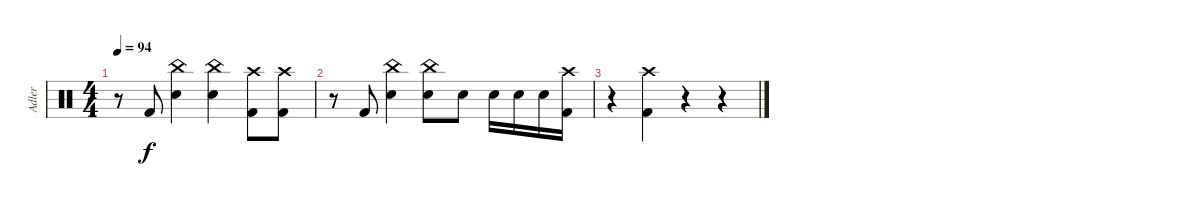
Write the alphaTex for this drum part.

\track ("Adler" "Adler") {instrument percussion}
\staff {score}
\articulation defaults
\ts (4 4)
\tempo 94
\clef neutral
\ks c
r.8{dy f} "Kick (hit) 2".8 ("China (hit)" "Snare (hit) 2").4 ("China (hit)" "Snare (hit) 2").4 ("Kick (hit) 2" "Crash high (hit)").8 ("Kick (hit) 2" "Crash high (hit)").8 |
r.8 "Kick (hit) 2".8 ("China (hit)" "Snare (hit) 2").4 ("China (hit)" "Snare (hit) 2").8 "Snare (hit) 2".8 "Snare (hit) 2".16 "Snare (hit) 2".16 "Snare (hit) 2".16 ("Crash high (hit)" "Kick (hit) 2").16 |
r.4 ("Crash high (hit)" "Kick (hit) 2").4 r.4 r.4
